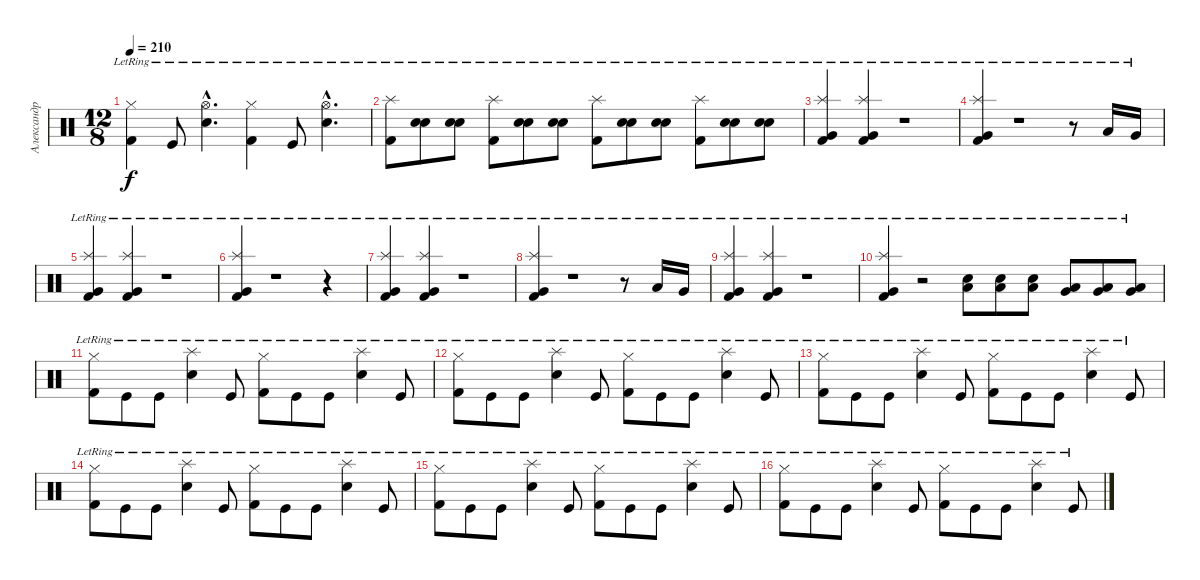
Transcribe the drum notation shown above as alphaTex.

\track ("Александр Манякин" "Александр ") {instrument percussion}
\staff {score}
\articulation defaults
\ts (12 8)
\tempo 210
\clef neutral
\ks c
("Hi-Hat (closed)"{lr} "Kick (hit) 2"{lr}).4{dy f} "Kick (hit)"{lr}.8 ("Hi-Hat (open)"{hac lr} "Snare (hit) 2"{hac lr}).4{d} ("Hi-Hat (closed)"{lr} "Kick (hit) 2"{lr}).4 "Kick (hit)"{lr}.8 ("Hi-Hat (open)"{hac lr} "Snare (hit) 2"{hac lr}).4{d} |
("Splash (hit)"{lr} "Kick (hit) 2"{lr}).8 ("Electric Snare (hit)"{lr} "Snare (hit) 2"{lr}).8 ("Electric Snare (hit)"{lr} "Snare (hit) 2"{lr}).8 ("Splash (hit)"{lr} "Kick (hit) 2"{lr}).8 ("Electric Snare (hit)"{lr} "Snare (hit) 2"{lr}).8 ("Electric Snare (hit)"{lr} "Snare (hit) 2"{lr}).8 ("Splash (hit)"{lr} "Kick (hit) 2"{lr}).8 ("Electric Snare (hit)"{lr} "Snare (hit) 2"{lr}).8 ("Electric Snare (hit)"{lr} "Snare (hit) 2"{lr}).8 ("Splash (hit)"{lr} "Kick (hit) 2"{lr}).8 ("Snare (hit) 2"{lr} "Electric Snare (hit)"{lr}).8 ("Snare (hit) 2"{lr} "Electric Snare (hit)"{lr}).8 |
("Very Low Tom (hit)"{lr} "Splash (hit)"{lr} "Kick (hit) 2"{lr}).4 ("Very Low Tom (hit)"{lr} "Splash (hit)"{lr} "Kick (hit) 2"{lr}).4 r.1 |
("Splash (hit)"{lr} "Very Low Tom (hit)"{lr} "Kick (hit) 2"{lr}).4 r.1 r.8 "Low Floor Tom (hit)"{lr}.16 "Very Low Tom (hit)"{lr}.16 |
("Splash (hit)"{lr} "Very Low Tom (hit)"{lr} "Kick (hit) 2"{lr}).4 ("Very Low Tom (hit)"{lr} "Kick (hit) 2"{lr} "Splash (hit)"{lr}).4 r.1 |
("Splash (hit)"{lr} "Very Low Tom (hit)"{lr} "Kick (hit) 2"{lr}).4 r.1 r.4 |
("Splash (hit)"{lr} "Very Low Tom (hit)"{lr} "Kick (hit) 2"{lr}).4 ("Splash (hit)"{lr} "Very Low Tom (hit)"{lr} "Kick (hit) 2"{lr}).4 r.1 |
("Very Low Tom (hit)"{lr} "Splash (hit)"{lr} "Kick (hit) 2"{lr}).4 r.1 r.8 "Low Floor Tom (hit)"{lr}.16 "Very Low Tom (hit)"{lr}.16 |
("Splash (hit)"{lr} "Very Low Tom (hit)"{lr} "Kick (hit) 2"{lr}).4 ("Splash (hit)"{lr} "Very Low Tom (hit)"{lr} "Kick (hit) 2"{lr}).4 r.1 |
("Splash (hit)"{lr} "Very Low Tom (hit)"{lr} "Kick (hit) 2"{lr}).4 r.2 ("Low Tom (hit)"{lr} "Snare (hit) 2"{lr}).8 ("Low Tom (hit)"{lr} "Snare (hit) 2"{lr}).8 ("Snare (hit) 2"{lr} "Low Tom (hit)"{lr}).8 ("Very Low Tom (hit)"{lr} "Low Floor Tom (hit)"{lr}).8 ("Very Low Tom (hit)"{lr} "Low Floor Tom (hit)"{lr}).8 ("Very Low Tom (hit)"{lr} "Low Floor Tom (hit)"{lr}).8 |
("Hi-Hat (closed)"{lr} "Kick (hit) 2"{lr}).8 "Kick (hit)"{lr}.8 "Kick (hit)"{lr}.8 ("Splash (hit)"{lr} "Snare (hit) 2"{lr}).4 "Kick (hit)"{lr}.8 ("Hi-Hat (closed)"{lr} "Kick (hit) 2"{lr}).8 "Kick (hit)"{lr}.8 "Kick (hit)"{lr}.8 ("Splash (hit)"{lr} "Snare (hit) 2"{lr}).4 "Kick (hit)"{lr}.8 |
("Hi-Hat (closed)"{lr} "Kick (hit) 2"{lr}).8 "Kick (hit)"{lr}.8 "Kick (hit)"{lr}.8 ("Splash (hit)"{lr} "Snare (hit) 2"{lr}).4 "Kick (hit)"{lr}.8 ("Hi-Hat (closed)"{lr} "Kick (hit) 2"{lr}).8 "Kick (hit)"{lr}.8 "Kick (hit)"{lr}.8 ("Splash (hit)"{lr} "Snare (hit) 2"{lr}).4 "Kick (hit)"{lr}.8 |
("Hi-Hat (closed)"{lr} "Kick (hit) 2"{lr}).8 "Kick (hit)"{lr}.8 "Kick (hit)"{lr}.8 ("Splash (hit)"{lr} "Snare (hit) 2"{lr}).4 "Kick (hit)"{lr}.8 ("Hi-Hat (closed)"{lr} "Kick (hit) 2"{lr}).8 "Kick (hit)"{lr}.8 "Kick (hit)"{lr}.8 ("Splash (hit)"{lr} "Snare (hit) 2"{lr}).4 "Kick (hit)"{lr}.8 |
("Hi-Hat (closed)"{lr} "Kick (hit) 2"{lr}).8 "Kick (hit)"{lr}.8 "Kick (hit)"{lr}.8 ("Splash (hit)"{lr} "Snare (hit) 2"{lr}).4 "Kick (hit)"{lr}.8 ("Hi-Hat (closed)"{lr} "Kick (hit) 2"{lr}).8 "Kick (hit)"{lr}.8 "Kick (hit)"{lr}.8 ("Splash (hit)"{lr} "Snare (hit) 2"{lr}).4 "Kick (hit)"{lr}.8 |
("Hi-Hat (closed)"{lr} "Kick (hit) 2"{lr}).8 "Kick (hit)"{lr}.8 "Kick (hit)"{lr}.8 ("Splash (hit)"{lr} "Snare (hit) 2"{lr}).4 "Kick (hit)"{lr}.8 ("Hi-Hat (closed)"{lr} "Kick (hit) 2"{lr}).8 "Kick (hit)"{lr}.8 "Kick (hit)"{lr}.8 ("Splash (hit)"{lr} "Snare (hit) 2"{lr}).4 "Kick (hit)"{lr}.8 |
("Hi-Hat (closed)"{lr} "Kick (hit) 2"{lr}).8 "Kick (hit)"{lr}.8 "Kick (hit)"{lr}.8 ("Splash (hit)"{lr} "Snare (hit) 2"{lr}).4 "Kick (hit)"{lr}.8 ("Hi-Hat (closed)"{lr} "Kick (hit) 2"{lr}).8 "Kick (hit)"{lr}.8 "Kick (hit)"{lr}.8 ("Splash (hit)"{lr} "Snare (hit) 2"{lr}).4 "Kick (hit)"{lr}.8
